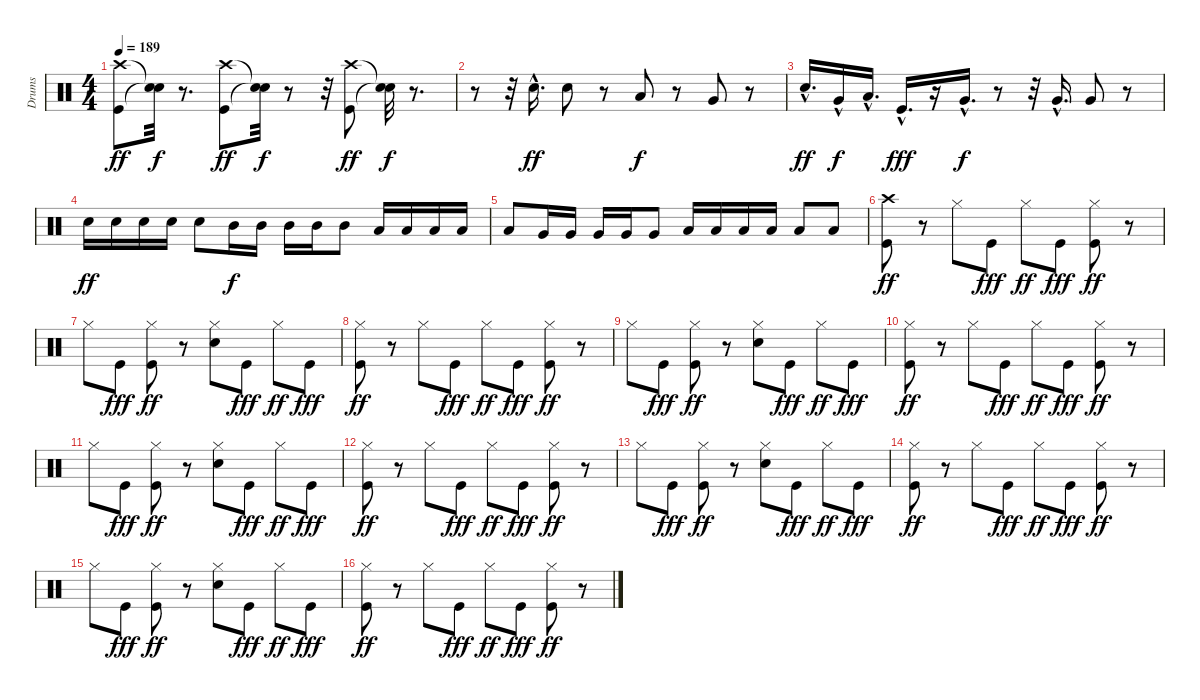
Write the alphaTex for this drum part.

\track ("Drums" "Drums") {instrument percussion}
\staff {score}
\articulation defaults
\ts (4 4)
\tempo 189
\clef neutral
\ks c
("Kick (hit)" "Crash high (hit)").8{dy ff} ("Snare (hit)"{t} "Snare (hit)"{t}).32{dy f} r.8{d} ("Kick (hit)" "Crash high (hit)").8{dy ff} ("Snare (hit)"{t} "Snare (hit)"{t}).32{dy f} r.8 r.32 ("Kick (hit)" "Crash high (hit)").8{dy ff} ("Snare (hit)"{t} "Snare (hit)"{t}).32{dy f} r.8{d} |
r.8 r.32 "Snare (hit) 2"{hac}.16{d dy ff} "Snare (hit) 2".8 r.8 "Low Tom (hit)".8{dy f} r.8 "Very Low Tom (hit)".8 r.8 |
"Snare (hit) 2"{hac}.16{d dy ff} "Very Low Tom (hit)"{hac}.16{dy f} "Low Floor Tom (hit)"{hac}.16{d} "Kick (hit)"{hac}.16{d dy fff} r.16 "Very Low Tom (hit)"{hac}.16{d dy f} r.8 r.32 "Very Low Tom (hit)"{hac}.16{d} "Very Low Tom (hit)".8 r.8 |
"Snare (hit) 2".16{dy ff} "Snare (hit) 2".16 "Snare (hit) 2".16 "Snare (hit) 2".16 "Snare (hit) 2".8 "Mid Tom (hit)".16{dy f} "Mid Tom (hit)".16 "Mid Tom (hit)".16 "Mid Tom (hit)".16 "Mid Tom (hit)".8 "Low Tom (hit)".16 "Low Tom (hit)".16 "Low Tom (hit)".16 "Low Tom (hit)".16 |
"Low Tom (hit)".8 "Very Low Tom (hit)".16 "Very Low Tom (hit)".16 "Very Low Tom (hit)".16 "Very Low Tom (hit)".16 "Very Low Tom (hit)".8 "Low Floor Tom (hit)".16 "Low Floor Tom (hit)".16 "Low Floor Tom (hit)".16 "Low Floor Tom (hit)".16 "Low Floor Tom (hit)".8 "Low Floor Tom (hit)".8 |
("Kick (hit)" "Crash high (hit)").8{dy ff} r.8 "Hi-Hat (closed)".8 "Kick (hit)".8{dy fff} "Hi-Hat (closed)".8{dy ff} "Kick (hit)".8{dy fff} ("Kick (hit)" "Hi-Hat (closed)").8{dy ff} r.8 |
"Hi-Hat (closed)".8 "Kick (hit)".8{dy fff} ("Kick (hit)" "Hi-Hat (closed)").8{dy ff} r.8 ("Snare (hit) 2" "Hi-Hat (closed)").8 "Kick (hit)".8{dy fff} "Hi-Hat (closed)".8{dy ff} "Kick (hit)".8{dy fff} |
("Kick (hit)" "Hi-Hat (closed)").8{dy ff} r.8 "Hi-Hat (closed)".8 "Kick (hit)".8{dy fff} "Hi-Hat (closed)".8{dy ff} "Kick (hit)".8{dy fff} ("Kick (hit)" "Hi-Hat (closed)").8{dy ff} r.8 |
"Hi-Hat (closed)".8 "Kick (hit)".8{dy fff} ("Kick (hit)" "Hi-Hat (closed)").8{dy ff} r.8 ("Snare (hit) 2" "Hi-Hat (closed)").8 "Kick (hit)".8{dy fff} "Hi-Hat (closed)".8{dy ff} "Kick (hit)".8{dy fff} |
("Kick (hit)" "Hi-Hat (closed)").8{dy ff} r.8 "Hi-Hat (closed)".8 "Kick (hit)".8{dy fff} "Hi-Hat (closed)".8{dy ff} "Kick (hit)".8{dy fff} ("Kick (hit)" "Hi-Hat (closed)").8{dy ff} r.8 |
"Hi-Hat (closed)".8 "Kick (hit)".8{dy fff} ("Kick (hit)" "Hi-Hat (closed)").8{dy ff} r.8 ("Snare (hit) 2" "Hi-Hat (closed)").8 "Kick (hit)".8{dy fff} "Hi-Hat (closed)".8{dy ff} "Kick (hit)".8{dy fff} |
("Kick (hit)" "Hi-Hat (closed)").8{dy ff} r.8 "Hi-Hat (closed)".8 "Kick (hit)".8{dy fff} "Hi-Hat (closed)".8{dy ff} "Kick (hit)".8{dy fff} ("Kick (hit)" "Hi-Hat (closed)").8{dy ff} r.8 |
"Hi-Hat (closed)".8 "Kick (hit)".8{dy fff} ("Kick (hit)" "Hi-Hat (closed)").8{dy ff} r.8 ("Snare (hit) 2" "Hi-Hat (closed)").8 "Kick (hit)".8{dy fff} "Hi-Hat (closed)".8{dy ff} "Kick (hit)".8{dy fff} |
("Kick (hit)" "Hi-Hat (closed)").8{dy ff} r.8 "Hi-Hat (closed)".8 "Kick (hit)".8{dy fff} "Hi-Hat (closed)".8{dy ff} "Kick (hit)".8{dy fff} ("Kick (hit)" "Hi-Hat (closed)").8{dy ff} r.8 |
"Hi-Hat (closed)".8 "Kick (hit)".8{dy fff} ("Kick (hit)" "Hi-Hat (closed)").8{dy ff} r.8 ("Snare (hit) 2" "Hi-Hat (closed)").8 "Kick (hit)".8{dy fff} "Hi-Hat (closed)".8{dy ff} "Kick (hit)".8{dy fff} |
("Kick (hit)" "Hi-Hat (closed)").8{dy ff} r.8 "Hi-Hat (closed)".8 "Kick (hit)".8{dy fff} "Hi-Hat (closed)".8{dy ff} "Kick (hit)".8{dy fff} ("Kick (hit)" "Hi-Hat (closed)").8{dy ff} r.8
